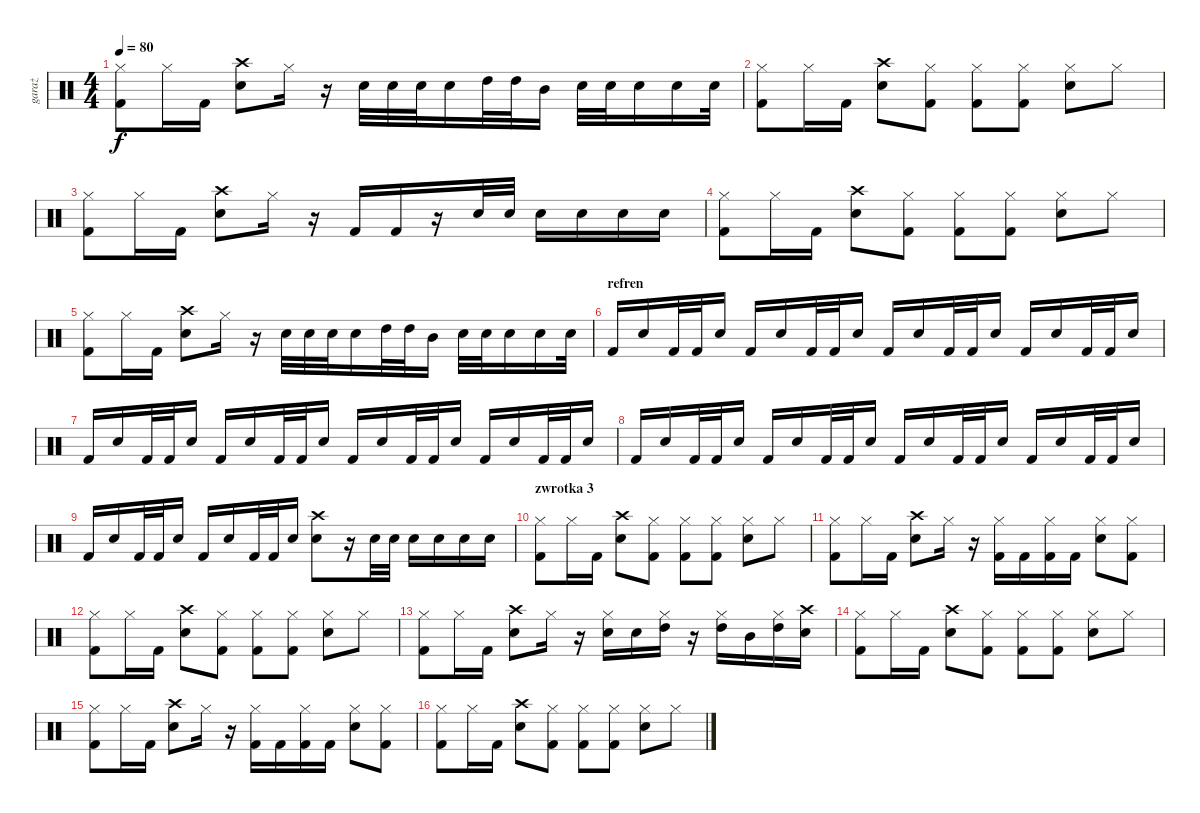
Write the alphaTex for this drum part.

\track ("garaż" "garaż") {instrument percussion}
\staff {score}
\articulation defaults
\ts (4 4)
\tempo 80
\clef neutral
\ks c
("Hi-Hat (closed)" "Kick (hit) 2").8{dy f} "Hi-Hat (closed)".16 "Kick (hit) 2".16 ("Crash high (hit)" "Snare (hit) 2").8 "Hi-Hat (closed)".16 r.16 "Snare (hit) 2".32 "Snare (hit) 2".32 "Snare (hit) 2".32 "Snare (hit) 2".16 "High Tom (hit)".32 "High Tom (hit)".32 "Mid Tom (hit)".16 "Snare (hit) 2".32 "Snare (hit) 2".32 "Snare (hit) 2".16 "Snare (hit) 2".16 "Snare (hit) 2".32 |
("Hi-Hat (closed)" "Kick (hit) 2").8 "Hi-Hat (closed)".16 "Kick (hit) 2".16 ("Crash high (hit)" "Snare (hit) 2").8 ("Hi-Hat (closed)" "Kick (hit) 2").8 ("Hi-Hat (closed)" "Kick (hit) 2").8 ("Hi-Hat (closed)" "Kick (hit) 2").8 ("Hi-Hat (closed)" "Snare (hit) 2").8 "Hi-Hat (closed)".8 |
("Hi-Hat (closed)" "Kick (hit) 2").8 "Hi-Hat (closed)".16 "Kick (hit) 2".16 ("Crash high (hit)" "Snare (hit) 2").8 "Hi-Hat (closed)".16 r.16 "Kick (hit) 2".16 "Kick (hit) 2".16 r.16 "Snare (hit) 2".32 "Snare (hit) 2".32 "Snare (hit) 2".16 "Snare (hit) 2".16 "Snare (hit) 2".16 "Snare (hit) 2".16 |
("Hi-Hat (closed)" "Kick (hit) 2").8 "Hi-Hat (closed)".16 "Kick (hit) 2".16 ("Crash high (hit)" "Snare (hit) 2").8 ("Hi-Hat (closed)" "Kick (hit) 2").8 ("Hi-Hat (closed)" "Kick (hit) 2").8 ("Hi-Hat (closed)" "Kick (hit) 2").8 ("Hi-Hat (closed)" "Snare (hit) 2").8 "Hi-Hat (closed)".8 |
("Hi-Hat (closed)" "Kick (hit) 2").8 "Hi-Hat (closed)".16 "Kick (hit) 2".16 ("Crash high (hit)" "Snare (hit) 2").8 "Hi-Hat (closed)".16 r.16 "Snare (hit) 2".32 "Snare (hit) 2".32 "Snare (hit) 2".32 "Snare (hit) 2".16 "High Tom (hit)".32 "High Tom (hit)".32 "Mid Tom (hit)".16 "Snare (hit) 2".32 "Snare (hit) 2".32 "Snare (hit) 2".16 "Snare (hit) 2".16 "Snare (hit) 2".32 |
\section ("" "refren")
"Kick (hit) 2".16 "Snare (hit) 2".16 "Kick (hit) 2".32 "Kick (hit) 2".32 "Snare (hit) 2".16 "Kick (hit) 2".16 "Snare (hit) 2".16 "Kick (hit) 2".32 "Kick (hit) 2".32 "Snare (hit) 2".16 "Kick (hit) 2".16 "Snare (hit) 2".16 "Kick (hit) 2".32 "Kick (hit) 2".32 "Snare (hit) 2".16 "Kick (hit) 2".16 "Snare (hit) 2".16 "Kick (hit) 2".32 "Kick (hit) 2".32 "Snare (hit) 2".16 |
"Kick (hit) 2".16 "Snare (hit) 2".16 "Kick (hit) 2".32 "Kick (hit) 2".32 "Snare (hit) 2".16 "Kick (hit) 2".16 "Snare (hit) 2".16 "Kick (hit) 2".32 "Kick (hit) 2".32 "Snare (hit) 2".16 "Kick (hit) 2".16 "Snare (hit) 2".16 "Kick (hit) 2".32 "Kick (hit) 2".32 "Snare (hit) 2".16 "Kick (hit) 2".16 "Snare (hit) 2".16 "Kick (hit) 2".32 "Kick (hit) 2".32 "Snare (hit) 2".16 |
"Kick (hit) 2".16 "Snare (hit) 2".16 "Kick (hit) 2".32 "Kick (hit) 2".32 "Snare (hit) 2".16 "Kick (hit) 2".16 "Snare (hit) 2".16 "Kick (hit) 2".32 "Kick (hit) 2".32 "Snare (hit) 2".16 "Kick (hit) 2".16 "Snare (hit) 2".16 "Kick (hit) 2".32 "Kick (hit) 2".32 "Snare (hit) 2".16 "Kick (hit) 2".16 "Snare (hit) 2".16 "Kick (hit) 2".32 "Kick (hit) 2".32 "Snare (hit) 2".16 |
"Kick (hit) 2".16 "Snare (hit) 2".16 "Kick (hit) 2".32 "Kick (hit) 2".32 "Snare (hit) 2".16 "Kick (hit) 2".16 "Snare (hit) 2".16 "Kick (hit) 2".32 "Kick (hit) 2".32 "Snare (hit) 2".16 ("Crash high (hit)" "Snare (hit) 2").8 r.16 "Snare (hit) 2".32 "Snare (hit) 2".32 "Snare (hit) 2".16 "Snare (hit) 2".16 "Snare (hit) 2".16 "Snare (hit) 2".16 |
\section ("" "zwrotka 3")
("Hi-Hat (closed)" "Kick (hit) 2").8 "Hi-Hat (closed)".16 "Kick (hit) 2".16 ("Crash high (hit)" "Snare (hit) 2").8 ("Hi-Hat (closed)" "Kick (hit) 2").8 ("Hi-Hat (closed)" "Kick (hit) 2").8 ("Hi-Hat (closed)" "Kick (hit) 2").8 ("Hi-Hat (closed)" "Snare (hit) 2").8 "Hi-Hat (closed)".8 |
("Hi-Hat (closed)" "Kick (hit) 2").8 "Hi-Hat (closed)".16 "Kick (hit) 2".16 ("Crash high (hit)" "Snare (hit) 2").8 "Hi-Hat (closed)".16 r.16 ("Hi-Hat (closed)" "Kick (hit) 2").16 "Kick (hit) 2".16 ("Hi-Hat (closed)" "Kick (hit) 2").16 "Kick (hit) 2".16 ("Hi-Hat (closed)" "Snare (hit) 2").8 ("Hi-Hat (closed)" "Kick (hit) 2").8 |
("Hi-Hat (closed)" "Kick (hit) 2").8 "Hi-Hat (closed)".16 "Kick (hit) 2".16 ("Crash high (hit)" "Snare (hit) 2").8 ("Hi-Hat (closed)" "Kick (hit) 2").8 ("Hi-Hat (closed)" "Kick (hit) 2").8 ("Hi-Hat (closed)" "Kick (hit) 2").8 ("Hi-Hat (closed)" "Snare (hit) 2").8 "Hi-Hat (closed)".8 |
("Hi-Hat (closed)" "Kick (hit) 2").8 "Hi-Hat (closed)".16 "Kick (hit) 2".16 ("Crash high (hit)" "Snare (hit) 2").8 "Hi-Hat (closed)".16 r.16 ("Hi-Hat (closed)" "Snare (hit) 2").16 "Snare (hit) 2".16 ("Hi-Hat (closed)" "High Tom (hit)").16 r.16 ("Hi-Hat (closed)" "High Tom (hit)").16 "Mid Tom (hit)".16 ("Hi-Hat (closed)" "High Tom (hit)").16 ("Crash high (hit)" "Snare (hit) 2").16 |
("Hi-Hat (closed)" "Kick (hit) 2").8 "Hi-Hat (closed)".16 "Kick (hit) 2".16 ("Crash high (hit)" "Snare (hit) 2").8 ("Hi-Hat (closed)" "Kick (hit) 2").8 ("Hi-Hat (closed)" "Kick (hit) 2").8 ("Hi-Hat (closed)" "Kick (hit) 2").8 ("Hi-Hat (closed)" "Snare (hit) 2").8 "Hi-Hat (closed)".8 |
("Hi-Hat (closed)" "Kick (hit) 2").8 "Hi-Hat (closed)".16 "Kick (hit) 2".16 ("Crash high (hit)" "Snare (hit) 2").8 "Hi-Hat (closed)".16 r.16 ("Hi-Hat (closed)" "Kick (hit) 2").16 "Kick (hit) 2".16 ("Hi-Hat (closed)" "Kick (hit) 2").16 "Kick (hit) 2".16 ("Hi-Hat (closed)" "Snare (hit) 2").8 ("Hi-Hat (closed)" "Kick (hit) 2").8 |
("Hi-Hat (closed)" "Kick (hit) 2").8 "Hi-Hat (closed)".16 "Kick (hit) 2".16 ("Crash high (hit)" "Snare (hit) 2").8 ("Hi-Hat (closed)" "Kick (hit) 2").8 ("Hi-Hat (closed)" "Kick (hit) 2").8 ("Hi-Hat (closed)" "Kick (hit) 2").8 ("Hi-Hat (closed)" "Snare (hit) 2").8 "Hi-Hat (closed)".8
